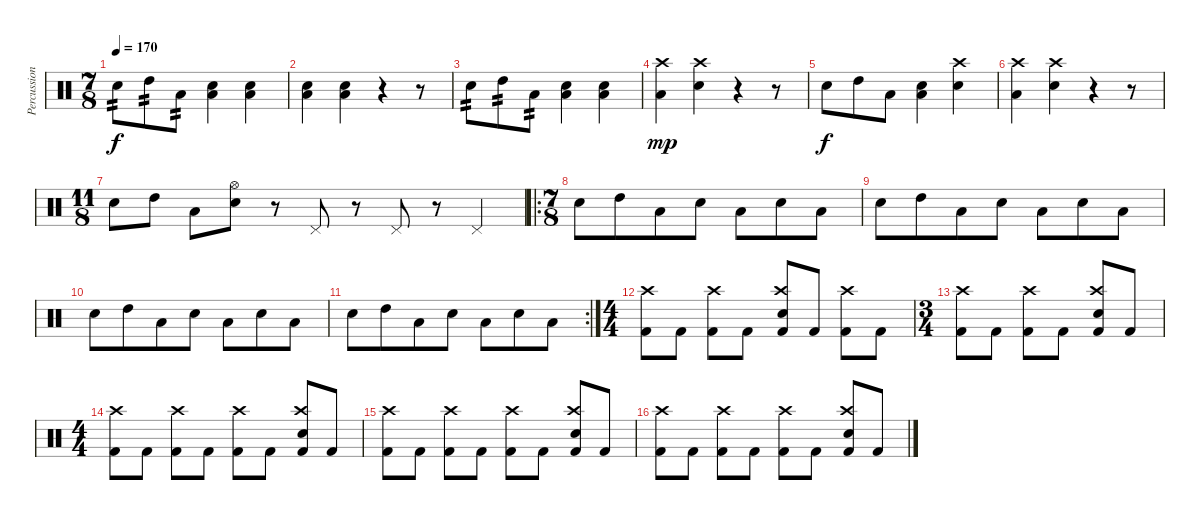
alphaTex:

\track ("Percussion" "Percussion") {instrument percussion}
\staff {score}
\articulation defaults
\ts (7 8)
\tempo 170
\clef neutral
\ks c "Electric Snare (hit)".8{tp 2 dy f} "High Tom (hit)".8{tp 2} "Low Tom (hit)".8{tp 2}
("Low Floor Tom (hit)" "Electric Snare (hit)").4 ("Low Floor Tom (hit)" "Electric Snare (hit)").4 |
("Electric Snare (hit)" "Low Floor Tom (hit)").4 ("Low Floor Tom (hit)" "Electric Snare (hit)").4 r.4 r.8 |
"Electric Snare (hit)".8{tp 2} "High Tom (hit)".8{tp 2} "Low Tom (hit)".8{tp 2} ("Low Floor Tom (hit)" "Electric Snare (hit)").4 ("Low Floor Tom (hit)" "Electric Snare (hit)").4 |
("Crash high (hit)" "Low Floor Tom (hit)").4{dy mp} ("Crash high (hit)" "Electric Snare (hit)").4 r.4 r.8 |
"Electric Snare (hit)".8{dy f} "High Tom (hit)".8 "Low Tom (hit)".8 ("Low Floor Tom (hit)" "Electric Snare (hit)").4 ("Crash high (hit)" "Electric Snare (hit)").4 |
("Crash high (hit)" "Low Floor Tom (hit)").4 ("Crash high (hit)" "Electric Snare (hit)").4 r.4 r.8 |
\ts (11 8)
"Electric Snare (hit)".8 "High Tom (hit)".8 "Low Tom (hit)".8 ("Hi-Hat (open)" "Electric Snare (hit)").8 r.8 "Pedal Hi-Hat (hit)".8 r.8 "Pedal Hi-Hat (hit)".8 r.8 "Pedal Hi-Hat (hit)".4 |
\ro
\ts (7 8)
"Electric Snare (hit)".8 "High Tom (hit)".8 "Low Tom (hit)".8 "Electric Snare (hit)".8 "Low Floor Tom (hit)".8 "Electric Snare (hit)".8 "Low Floor Tom (hit)".8 |
"Electric Snare (hit)".8 "High Tom (hit)".8 "Low Tom (hit)".8 "Electric Snare (hit)".8 "Low Floor Tom (hit)".8 "Electric Snare (hit)".8 "Low Floor Tom (hit)".8 |
"Electric Snare (hit)".8 "High Tom (hit)".8 "Low Tom (hit)".8 "Electric Snare (hit)".8 "Low Floor Tom (hit)".8 "Electric Snare (hit)".8 "Low Floor Tom (hit)".8 |
\rc 2 "Electric Snare (hit)".8 "High Tom (hit)".8 "Low Tom (hit)".8 "Electric Snare (hit)".8 "Low Floor Tom (hit)".8 "Electric Snare (hit)".8 "Low Floor Tom (hit)".8
|
\ts (4 4)
("Crash high (hit)" "Kick (hit) 2").8 "Kick (hit) 2".8 ("Crash high (hit)" "Kick (hit) 2").8 "Kick (hit) 2".8 ("Crash high (hit)" "Electric Snare (hit)" "Kick (hit) 2").8 "Kick (hit) 2".8 ("Crash high (hit)" "Kick (hit) 2").8 "Kick (hit) 2".8 |
\ts (3 4)
("Crash high (hit)" "Kick (hit) 2").8 "Kick (hit) 2".8 ("Crash high (hit)" "Kick (hit) 2").8 "Kick (hit) 2".8 ("Crash high (hit)" "Electric Snare (hit)" "Kick (hit) 2").8 "Kick (hit) 2".8 |
\ts (4 4)
("Crash high (hit)" "Kick (hit) 2").8 "Kick (hit) 2".8 ("Crash high (hit)" "Kick (hit) 2").8 "Kick (hit) 2".8 ("Crash high (hit)" "Kick (hit) 2").8 "Kick (hit) 2".8 ("Crash high (hit)" "Electric Snare (hit)" "Kick (hit) 2").8 "Kick (hit) 2".8 |
("Crash high (hit)" "Kick (hit) 2").8 "Kick (hit) 2".8 ("Crash high (hit)" "Kick (hit) 2").8 "Kick (hit) 2".8 ("Crash high (hit)" "Kick (hit) 2").8 "Kick (hit) 2".8 ("Crash high (hit)" "Electric Snare (hit)" "Kick (hit) 2").8 "Kick (hit) 2".8 |
("Crash high (hit)" "Kick (hit) 2").8 "Kick (hit) 2".8 ("Crash high (hit)" "Kick (hit) 2").8 "Kick (hit) 2".8 ("Crash high (hit)" "Kick (hit) 2").8 "Kick (hit) 2".8 ("Crash high (hit)" "Electric Snare (hit)" "Kick (hit) 2").8 "Kick (hit) 2".8
